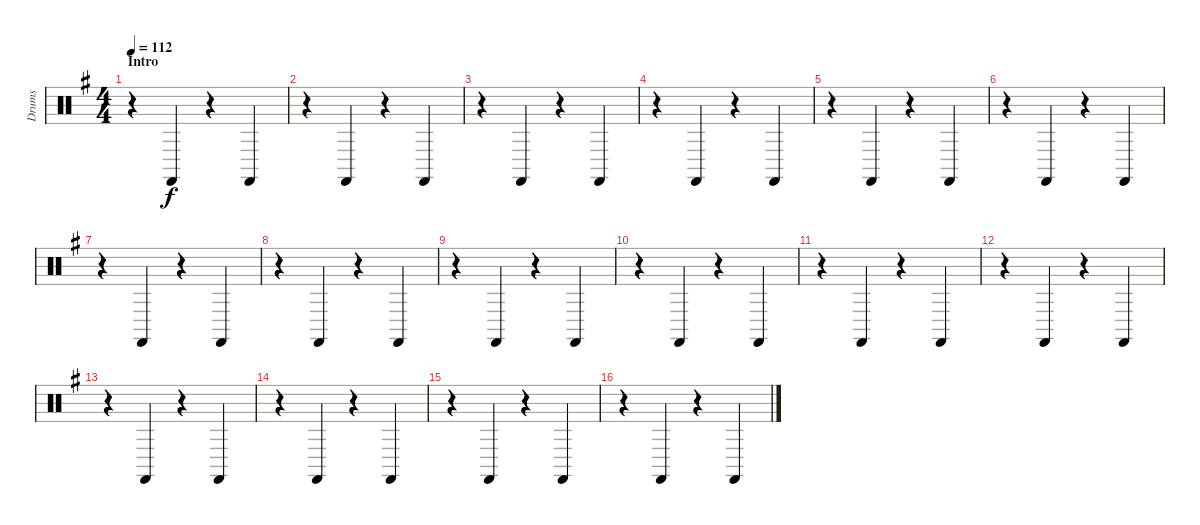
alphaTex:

\track ("Drums" "Drums") {instrument percussion}
\staff {score}
\articulation defaults
\ts (4 4)
\section ("" "Intro")
\tempo 112
\clef neutral
\ks g
r.4{dy f} "Castanets (hit)".4 r.4 "Castanets (hit)".4 |
r.4 "Castanets (hit)".4 r.4 "Castanets (hit)".4 |
r.4 "Castanets (hit)".4 r.4 "Castanets (hit)".4 |
r.4 "Castanets (hit)".4 r.4 "Castanets (hit)".4 |
r.4 "Castanets (hit)".4 r.4 "Castanets (hit)".4 |
r.4 "Castanets (hit)".4 r.4 "Castanets (hit)".4 |
r.4 "Castanets (hit)".4 r.4 "Castanets (hit)".4 |
r.4 "Castanets (hit)".4 r.4 "Castanets (hit)".4 |
r.4 "Castanets (hit)".4 r.4 "Castanets (hit)".4 |
r.4 "Castanets (hit)".4 r.4 "Castanets (hit)".4 |
r.4 "Castanets (hit)".4 r.4 "Castanets (hit)".4 |
r.4 "Castanets (hit)".4 r.4 "Castanets (hit)".4 |
r.4 "Castanets (hit)".4 r.4 "Castanets (hit)".4 |
r.4 "Castanets (hit)".4 r.4 "Castanets (hit)".4 |
r.4 "Castanets (hit)".4 r.4 "Castanets (hit)".4 |
r.4 "Castanets (hit)".4 r.4 "Castanets (hit)".4
